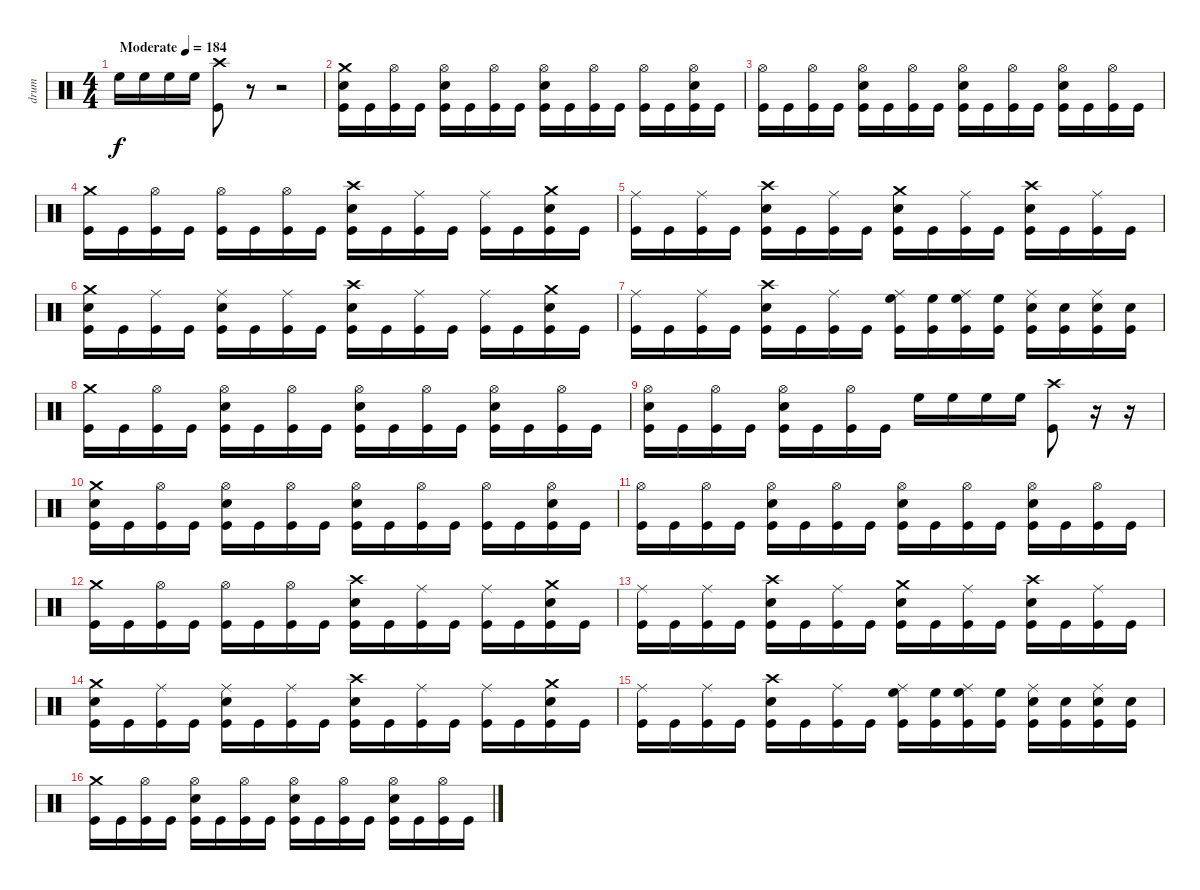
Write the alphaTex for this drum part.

\track ("drum" "drum") {instrument percussion}
\staff {score}
\articulation defaults
\ts (4 4)
\tempo (184 "Moderate")
\clef neutral
\ks c "High Floor Tom (hit)".16{dy f} "High Floor Tom (hit)".16 "High Floor Tom (hit)".16 "High Floor Tom (hit)".16
("Crash high (hit)" "Kick (hit)").8 r.8 r.2 |
("Crash medium (hit)" "Electric Snare (hit)" "Kick (hit)").16 "Kick (hit)".16 ("Hi-Hat (open)" "Kick (hit)").16 "Kick (hit)".16 ("Hi-Hat (open)" "Electric Snare (hit)" "Kick (hit)").16 "Kick (hit)".16 ("Hi-Hat (open)" "Kick (hit)").16 "Kick (hit)".16 ("Hi-Hat (open)" "Electric Snare (hit)" "Kick (hit)").16 "Kick (hit)".16 ("Hi-Hat (open)" "Kick (hit)").16 "Kick (hit)".16 ("Hi-Hat (open)" "Kick (hit)").16 "Kick (hit)".16 ("Hi-Hat (open)" "Electric Snare (hit)" "Kick (hit)").16 "Kick (hit)".16 |
("Hi-Hat (open)" "Kick (hit)").16 "Kick (hit)".16 ("Hi-Hat (open)" "Kick (hit)").16 "Kick (hit)".16 ("Hi-Hat (open)" "Electric Snare (hit)" "Kick (hit)").16 "Kick (hit)".16 ("Hi-Hat (open)" "Kick (hit)").16 "Kick (hit)".16 ("Hi-Hat (open)" "Electric Snare (hit)" "Kick (hit)").16 "Kick (hit)".16 ("Hi-Hat (open)" "Kick (hit)").16 "Kick (hit)".16 ("Hi-Hat (open)" "Electric Snare (hit)" "Kick (hit)").16 "Kick (hit)".16 ("Hi-Hat (open)" "Kick (hit)").16 "Kick (hit)".16 |
("Crash medium (hit)" "Kick (hit)").16 "Kick (hit)".16 ("Hi-Hat (open)" "Kick (hit)").16 "Kick (hit)".16 ("Hi-Hat (open)" "Kick (hit)").16 "Kick (hit)".16 ("Hi-Hat (open)" "Kick (hit)").16 "Kick (hit)".16 ("Crash high (hit)" "Electric Snare (hit)" "Kick (hit)").16 "Kick (hit)".16 ("Ride (middle)" "Kick (hit)").16 "Kick (hit)".16 ("Ride (middle)" "Kick (hit)").16 "Kick (hit)".16 ("Crash medium (hit)" "Electric Snare (hit)" "Kick (hit)").16 "Kick (hit)".16 |
("Ride (middle)" "Kick (hit)").16 "Kick (hit)".16 ("Ride (middle)" "Kick (hit)").16 "Kick (hit)".16 ("Crash high (hit)" "Electric Snare (hit)" "Kick (hit)").16 "Kick (hit)".16 ("Ride (middle)" "Kick (hit)").16 "Kick (hit)".16 ("Crash medium (hit)" "Electric Snare (hit)" "Kick (hit)").16 "Kick (hit)".16 ("Ride (middle)" "Kick (hit)").16 "Kick (hit)".16 ("Crash high (hit)" "Electric Snare (hit)" "Kick (hit)").16 "Kick (hit)".16 ("Ride (middle)" "Kick (hit)").16 "Kick (hit)".16 |
("Crash medium (hit)" "Electric Snare (hit)" "Kick (hit)").16 "Kick (hit)".16 ("Ride (middle)" "Kick (hit)").16 "Kick (hit)".16 ("Ride (middle)" "Electric Snare (hit)" "Kick (hit)").16 "Kick (hit)".16 ("Ride (middle)" "Kick (hit)").16 "Kick (hit)".16 ("Crash high (hit)" "Electric Snare (hit)" "Kick (hit)").16 "Kick (hit)".16 ("Ride (middle)" "Kick (hit)").16 "Kick (hit)".16 ("Ride (middle)" "Kick (hit)").16 "Kick (hit)".16 ("Crash medium (hit)" "Electric Snare (hit)" "Kick (hit)").16 "Kick (hit)".16 |
("Ride (middle)" "Kick (hit)").16 "Kick (hit)".16 ("Ride (middle)" "Kick (hit)").16 "Kick (hit)".16 ("Crash high (hit)" "Electric Snare (hit)" "Kick (hit)").16 "Kick (hit)".16 ("Ride (middle)" "Kick (hit)").16 "Kick (hit)".16 ("Ride (middle)" "High Floor Tom (hit)" "Kick (hit)").16 ("High Floor Tom (hit)" "Kick (hit)").16 ("Ride (middle)" "High Floor Tom (hit)" "Kick (hit)").16 ("High Floor Tom (hit)" "Kick (hit)").16 ("Ride (middle)" "Electric Snare (hit)" "Kick (hit)").16 ("Electric Snare (hit)" "Kick (hit)").16 ("Ride (middle)" "Electric Snare (hit)" "Kick (hit)").16 ("Electric Snare (hit)" "Kick (hit)").16 |
("Crash medium (hit)" "Kick (hit)").16 "Kick (hit)".16 ("Hi-Hat (open)" "Kick (hit)").16 "Kick (hit)".16 ("Hi-Hat (open)" "Electric Snare (hit)" "Kick (hit)").16 "Kick (hit)".16 ("Hi-Hat (open)" "Kick (hit)").16 "Kick (hit)".16 ("Hi-Hat (open)" "Electric Snare (hit)" "Kick (hit)").16 "Kick (hit)".16 ("Hi-Hat (open)" "Kick (hit)").16 "Kick (hit)".16 ("Hi-Hat (open)" "Electric Snare (hit)" "Kick (hit)").16 "Kick (hit)".16 ("Hi-Hat (open)" "Kick (hit)").16 "Kick (hit)".16 |
("Hi-Hat (open)" "Electric Snare (hit)" "Kick (hit)").16 "Kick (hit)".16 ("Hi-Hat (open)" "Kick (hit)").16 "Kick (hit)".16 ("Hi-Hat (open)" "Electric Snare (hit)" "Kick (hit)").16 "Kick (hit)".16 ("Hi-Hat (open)" "Kick (hit)").16 "Kick (hit)".16 "High Floor Tom (hit)".16 "High Floor Tom (hit)".16 "High Floor Tom (hit)".16 "High Floor Tom (hit)".16 ("Crash high (hit)" "Kick (hit)").8 r.16 r.16 |
("Crash medium (hit)" "Electric Snare (hit)" "Kick (hit)").16 "Kick (hit)".16 ("Hi-Hat (open)" "Kick (hit)").16 "Kick (hit)".16 ("Hi-Hat (open)" "Electric Snare (hit)" "Kick (hit)").16 "Kick (hit)".16 ("Hi-Hat (open)" "Kick (hit)").16 "Kick (hit)".16 ("Hi-Hat (open)" "Electric Snare (hit)" "Kick (hit)").16 "Kick (hit)".16 ("Hi-Hat (open)" "Kick (hit)").16 "Kick (hit)".16 ("Hi-Hat (open)" "Kick (hit)").16 "Kick (hit)".16 ("Hi-Hat (open)" "Electric Snare (hit)" "Kick (hit)").16 "Kick (hit)".16 |
("Hi-Hat (open)" "Kick (hit)").16 "Kick (hit)".16 ("Hi-Hat (open)" "Kick (hit)").16 "Kick (hit)".16 ("Hi-Hat (open)" "Electric Snare (hit)" "Kick (hit)").16 "Kick (hit)".16 ("Hi-Hat (open)" "Kick (hit)").16 "Kick (hit)".16 ("Hi-Hat (open)" "Electric Snare (hit)" "Kick (hit)").16 "Kick (hit)".16 ("Hi-Hat (open)" "Kick (hit)").16 "Kick (hit)".16 ("Hi-Hat (open)" "Electric Snare (hit)" "Kick (hit)").16 "Kick (hit)".16 ("Hi-Hat (open)" "Kick (hit)").16 "Kick (hit)".16 |
("Crash medium (hit)" "Kick (hit)").16 "Kick (hit)".16 ("Hi-Hat (open)" "Kick (hit)").16 "Kick (hit)".16 ("Hi-Hat (open)" "Kick (hit)").16 "Kick (hit)".16 ("Hi-Hat (open)" "Kick (hit)").16 "Kick (hit)".16 ("Crash high (hit)" "Electric Snare (hit)" "Kick (hit)").16 "Kick (hit)".16 ("Ride (middle)" "Kick (hit)").16 "Kick (hit)".16 ("Ride (middle)" "Kick (hit)").16 "Kick (hit)".16 ("Crash medium (hit)" "Electric Snare (hit)" "Kick (hit)").16 "Kick (hit)".16 |
("Ride (middle)" "Kick (hit)").16 "Kick (hit)".16 ("Ride (middle)" "Kick (hit)").16 "Kick (hit)".16 ("Crash high (hit)" "Electric Snare (hit)" "Kick (hit)").16 "Kick (hit)".16 ("Ride (middle)" "Kick (hit)").16 "Kick (hit)".16 ("Crash medium (hit)" "Electric Snare (hit)" "Kick (hit)").16 "Kick (hit)".16 ("Ride (middle)" "Kick (hit)").16 "Kick (hit)".16 ("Crash high (hit)" "Electric Snare (hit)" "Kick (hit)").16 "Kick (hit)".16 ("Ride (middle)" "Kick (hit)").16 "Kick (hit)".16 |
("Crash medium (hit)" "Electric Snare (hit)" "Kick (hit)").16 "Kick (hit)".16 ("Ride (middle)" "Kick (hit)").16 "Kick (hit)".16 ("Ride (middle)" "Electric Snare (hit)" "Kick (hit)").16 "Kick (hit)".16 ("Ride (middle)" "Kick (hit)").16 "Kick (hit)".16 ("Crash high (hit)" "Electric Snare (hit)" "Kick (hit)").16 "Kick (hit)".16 ("Ride (middle)" "Kick (hit)").16 "Kick (hit)".16 ("Ride (middle)" "Kick (hit)").16 "Kick (hit)".16 ("Crash medium (hit)" "Electric Snare (hit)" "Kick (hit)").16 "Kick (hit)".16 |
("Ride (middle)" "Kick (hit)").16 "Kick (hit)".16 ("Ride (middle)" "Kick (hit)").16 "Kick (hit)".16 ("Crash high (hit)" "Electric Snare (hit)" "Kick (hit)").16 "Kick (hit)".16 ("Ride (middle)" "Kick (hit)").16 "Kick (hit)".16 ("Ride (middle)" "High Floor Tom (hit)" "Kick (hit)").16 ("High Floor Tom (hit)" "Kick (hit)").16 ("Ride (middle)" "High Floor Tom (hit)" "Kick (hit)").16 ("High Floor Tom (hit)" "Kick (hit)").16 ("Ride (middle)" "Electric Snare (hit)" "Kick (hit)").16 ("Electric Snare (hit)" "Kick (hit)").16 ("Ride (middle)" "Electric Snare (hit)" "Kick (hit)").16 ("Electric Snare (hit)" "Kick (hit)").16 |
("Crash medium (hit)" "Kick (hit)").16 "Kick (hit)".16 ("Hi-Hat (open)" "Kick (hit)").16 "Kick (hit)".16 ("Hi-Hat (open)" "Electric Snare (hit)" "Kick (hit)").16 "Kick (hit)".16 ("Hi-Hat (open)" "Kick (hit)").16 "Kick (hit)".16 ("Hi-Hat (open)" "Electric Snare (hit)" "Kick (hit)").16 "Kick (hit)".16 ("Hi-Hat (open)" "Kick (hit)").16 "Kick (hit)".16 ("Hi-Hat (open)" "Electric Snare (hit)" "Kick (hit)").16 "Kick (hit)".16 ("Hi-Hat (open)" "Kick (hit)").16 "Kick (hit)".16
